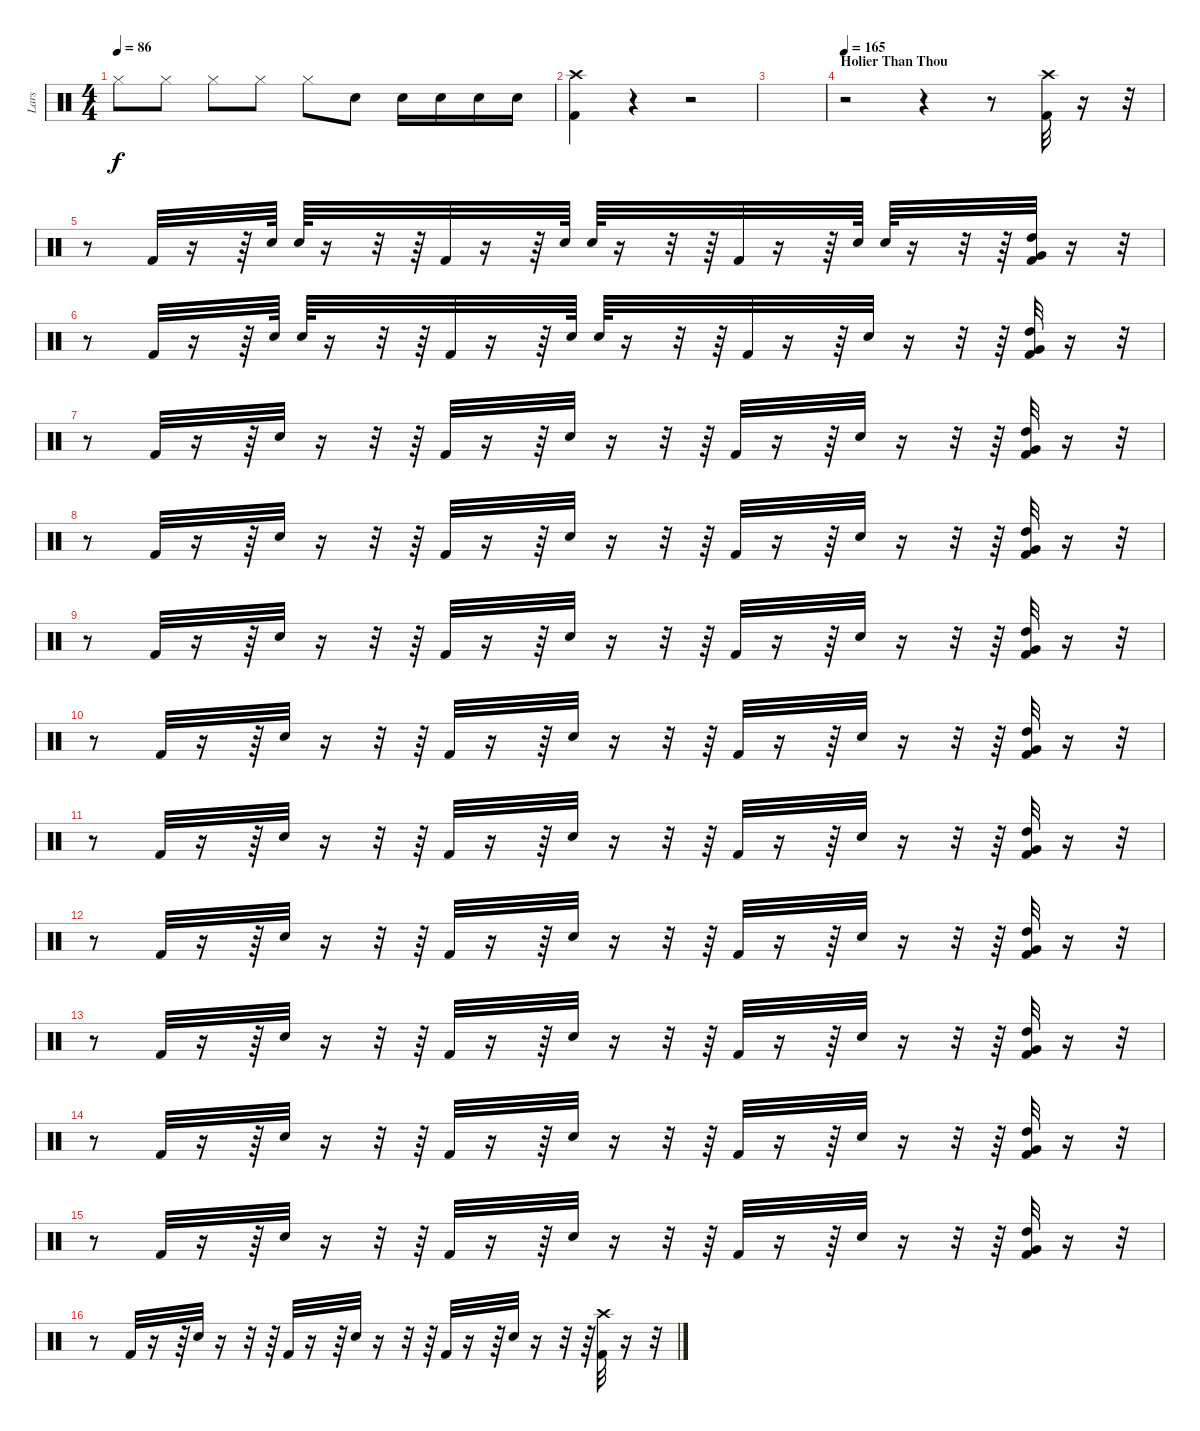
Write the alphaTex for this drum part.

\track ("Lars" "Lars") {instrument percussion}
\staff {score}
\articulation defaults
\ts (4 4)
\tempo 86
\clef neutral
\ks c "Hi-Hat (closed)".8{dy f} "Hi-Hat (closed)".8 "Hi-Hat (closed)".8 "Hi-Hat (closed)".8 "Hi-Hat (closed)".8 "Electric Snare (hit)".8 "Electric Snare (hit)".16 "Electric Snare (hit)".16 "Electric Snare (hit)".16 "Electric Snare (hit)".16
|
("Crash high (hit)" "Kick (hit) 2").4 r.4 r.2 |
|
\section ("" "Holier Than Thou")
\tempo 165
r.2 r.4 r.8 ("Kick (hit) 2" "Crash high (hit)").32 r.16 r.32 |
r.8 "Kick (hit) 2".32 r.16 r.64 "Snare (hit) 2".64 "Snare (hit) 2".64 r.16 r.32 r.64 "Kick (hit) 2".32 r.16 r.64 "Snare (hit) 2".64 "Snare (hit) 2".64 r.16 r.32 r.64 "Kick (hit) 2".32 r.16 r.64 "Snare (hit) 2".64 "Snare (hit) 2".64 r.16 r.32 r.64 ("Very Low Tom (hit)" "High Tom (hit)" "Kick (hit) 2").32 r.16 r.32 |
r.8 "Kick (hit) 2".32 r.16 r.64 "Snare (hit) 2".64 "Snare (hit) 2".64 r.16 r.32 r.64 "Kick (hit) 2".32 r.16 r.64 "Snare (hit) 2".64 "Snare (hit) 2".64 r.16 r.32 r.64 "Kick (hit) 2".32 r.16 r.64 "Snare (hit) 2".32 r.16 r.32 r.64 ("Very Low Tom (hit)" "High Tom (hit)" "Kick (hit) 2").32 r.16 r.32 |
r.8 "Kick (hit) 2".32 r.16 r.64 "Snare (hit) 2".32 r.16 r.32 r.64 "Kick (hit) 2".32 r.16 r.64 "Snare (hit) 2".32 r.16 r.32 r.64 "Kick (hit) 2".32 r.16 r.64 "Snare (hit) 2".32 r.16 r.32 r.64 ("Very Low Tom (hit)" "High Tom (hit)" "Kick (hit) 2").32 r.16 r.32 |
r.8 "Kick (hit) 2".32 r.16 r.64 "Snare (hit) 2".32 r.16 r.32 r.64 "Kick (hit) 2".32 r.16 r.64 "Snare (hit) 2".32 r.16 r.32 r.64 "Kick (hit) 2".32 r.16 r.64 "Snare (hit) 2".32 r.16 r.32 r.64 ("Very Low Tom (hit)" "High Tom (hit)" "Kick (hit) 2").32 r.16 r.32 |
r.8 "Kick (hit) 2".32 r.16 r.64 "Snare (hit) 2".32 r.16 r.32 r.64 "Kick (hit) 2".32 r.16 r.64 "Snare (hit) 2".32 r.16 r.32 r.64 "Kick (hit) 2".32 r.16 r.64 "Snare (hit) 2".32 r.16 r.32 r.64 ("Very Low Tom (hit)" "High Tom (hit)" "Kick (hit) 2").32 r.16 r.32 |
r.8 "Kick (hit) 2".32 r.16 r.64 "Snare (hit) 2".32 r.16 r.32 r.64 "Kick (hit) 2".32 r.16 r.64 "Snare (hit) 2".32 r.16 r.32 r.64 "Kick (hit) 2".32 r.16 r.64 "Snare (hit) 2".32 r.16 r.32 r.64 ("Very Low Tom (hit)" "High Tom (hit)" "Kick (hit) 2").32 r.16 r.32 |
r.8 "Kick (hit) 2".32 r.16 r.64 "Snare (hit) 2".32 r.16 r.32 r.64 "Kick (hit) 2".32 r.16 r.64 "Snare (hit) 2".32 r.16 r.32 r.64 "Kick (hit) 2".32 r.16 r.64 "Snare (hit) 2".32 r.16 r.32 r.64 ("Very Low Tom (hit)" "High Tom (hit)" "Kick (hit) 2").32 r.16 r.32 |
r.8 "Kick (hit) 2".32 r.16 r.64 "Snare (hit) 2".32 r.16 r.32 r.64 "Kick (hit) 2".32 r.16 r.64 "Snare (hit) 2".32 r.16 r.32 r.64 "Kick (hit) 2".32 r.16 r.64 "Snare (hit) 2".32 r.16 r.32 r.64 ("Very Low Tom (hit)" "High Tom (hit)" "Kick (hit) 2").32 r.16 r.32 |
r.8 "Kick (hit) 2".32 r.16 r.64 "Snare (hit) 2".32 r.16 r.32 r.64 "Kick (hit) 2".32 r.16 r.64 "Snare (hit) 2".32 r.16 r.32 r.64 "Kick (hit) 2".32 r.16 r.64 "Snare (hit) 2".32 r.16 r.32 r.64 ("Very Low Tom (hit)" "High Tom (hit)" "Kick (hit) 2").32 r.16 r.32 |
r.8 "Kick (hit) 2".32 r.16 r.64 "Snare (hit) 2".32 r.16 r.32 r.64 "Kick (hit) 2".32 r.16 r.64 "Snare (hit) 2".32 r.16 r.32 r.64 "Kick (hit) 2".32 r.16 r.64 "Snare (hit) 2".32 r.16 r.32 r.64 ("Very Low Tom (hit)" "High Tom (hit)" "Kick (hit) 2").32 r.16 r.32 |
r.8 "Kick (hit) 2".32 r.16 r.64 "Snare (hit) 2".32 r.16 r.32 r.64 "Kick (hit) 2".32 r.16 r.64 "Snare (hit) 2".32 r.16 r.32 r.64 "Kick (hit) 2".32 r.16 r.64 "Snare (hit) 2".32 r.16 r.32 r.64 ("Very Low Tom (hit)" "High Tom (hit)" "Kick (hit) 2").32 r.16 r.32 |
r.8 "Kick (hit) 2".32 r.16 r.64 "Snare (hit) 2".32 r.16 r.32 r.64 "Kick (hit) 2".32 r.16 r.64 "Snare (hit) 2".32 r.16 r.32 r.64 "Kick (hit) 2".32 r.16 r.64 "Snare (hit) 2".32 r.16 r.32 r.64 ("Crash high (hit)" "Kick (hit) 2").32 r.16 r.32
